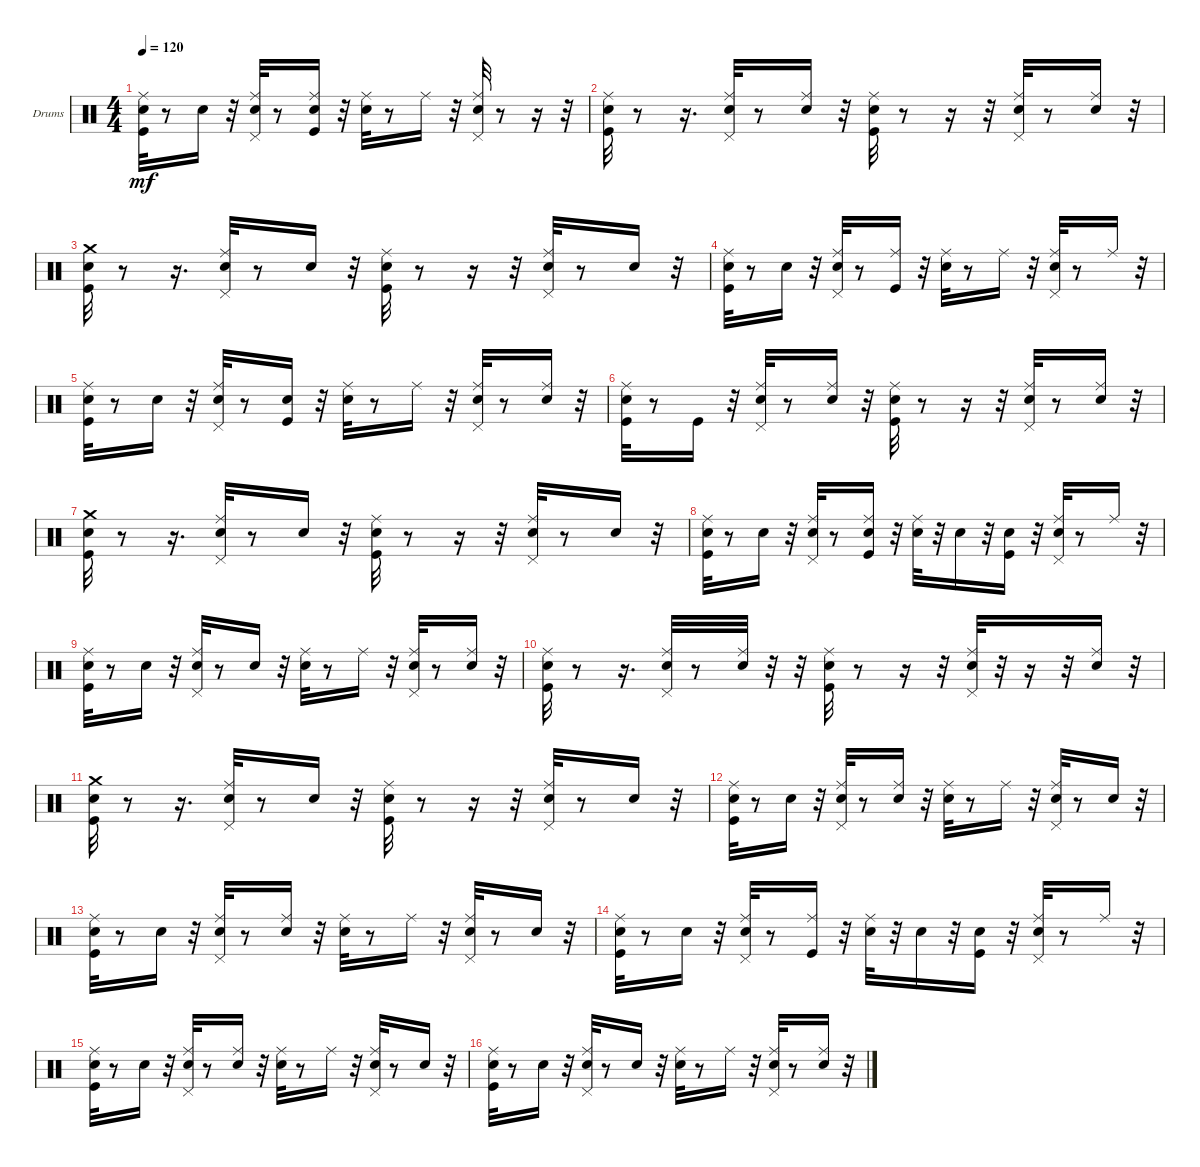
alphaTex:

\bracketExtendMode groupsimilarinstruments
\firstSystemTrackNameOrientation horizontal
\otherSystemsTrackNameOrientation horizontal
\track ("Drums   (BB)" "Drums") {instrument percussion}
\staff {score}
\articulation defaults
\ts (4 4)
\tempo 120
\clef neutral
\ks c
("Kick (hit)" "Snare (hit) 2" "Ride (middle)").32{dy mf} r.8 "Snare (hit) 2".16 r.32 ("Snare (hit) 2" "Ride (middle)" "Pedal Hi-Hat (hit)").32 r.8 ("Kick (hit)" "Snare (hit) 2" "Ride (middle)").16 r.32 ("Snare (hit) 2" "Ride (middle)").32 r.8 "Ride (middle)".16 r.32 ("Snare (hit) 2" "Ride (middle)" "Pedal Hi-Hat (hit)").32 r.8 r.16 r.32 |
("Kick (hit)" "Snare (hit) 2" "Ride (middle)").32 r.8 r.16{d} ("Snare (hit) 2" "Ride (middle)" "Pedal Hi-Hat (hit)").32 r.8 ("Snare (hit) 2" "Ride (middle)").16 r.32 ("Kick (hit)" "Snare (hit) 2" "Ride (middle)").32 r.8 r.16 r.32 ("Snare (hit) 2" "Ride (middle)" "Pedal Hi-Hat (hit)").32 r.8 ("Snare (hit) 2" "Ride (middle)").16 r.32 |
("Kick (hit)" "Snare (hit) 2" "Crash medium (hit)").32 r.8 r.16{d} ("Snare (hit) 2" "Ride (middle)" "Pedal Hi-Hat (hit)").32 r.8 "Snare (hit) 2".16 r.32 ("Kick (hit)" "Snare (hit) 2" "Ride (middle)").32 r.8 r.16 r.32 ("Snare (hit) 2" "Ride (middle)" "Pedal Hi-Hat (hit)").32 r.8 "Snare (hit) 2".16 r.32 |
("Kick (hit)" "Snare (hit) 2" "Ride (middle)").32 r.8 "Snare (hit) 2".16 r.32 ("Snare (hit) 2" "Ride (middle)" "Pedal Hi-Hat (hit)").32 r.8 ("Kick (hit)" "Ride (middle)").16 r.32 ("Snare (hit) 2" "Ride (middle)").32 r.8 "Ride (middle)".16 r.32 ("Snare (hit) 2" "Ride (middle)" "Pedal Hi-Hat (hit)").32 r.8 "Ride (middle)".16 r.32 |
("Kick (hit)" "Snare (hit) 2" "Ride (middle)").32 r.8 "Snare (hit) 2".16 r.32 ("Snare (hit) 2" "Ride (middle)" "Pedal Hi-Hat (hit)").32 r.8 ("Kick (hit)" "Snare (hit) 2").16 r.32 ("Snare (hit) 2" "Ride (middle)").32 r.8 "Ride (middle)".16 r.32 ("Snare (hit) 2" "Ride (middle)" "Pedal Hi-Hat (hit)").32 r.8 ("Snare (hit) 2" "Ride (middle)").16 r.32 |
("Kick (hit)" "Snare (hit) 2" "Ride (middle)").32 r.8 "Kick (hit)".16 r.32 ("Snare (hit) 2" "Ride (middle)" "Pedal Hi-Hat (hit)").32 r.8 ("Snare (hit) 2" "Ride (middle)").16 r.32 ("Kick (hit)" "Snare (hit) 2" "Ride (middle)").32 r.8 r.16 r.32 ("Snare (hit) 2" "Ride (middle)" "Pedal Hi-Hat (hit)").32 r.8 ("Snare (hit) 2" "Ride (middle)").16 r.32 |
("Kick (hit)" "Snare (hit) 2" "Crash medium (hit)").32 r.8 r.16{d} ("Snare (hit) 2" "Ride (middle)" "Pedal Hi-Hat (hit)").32 r.8 "Snare (hit) 2".16 r.32 ("Kick (hit)" "Snare (hit) 2" "Ride (middle)").32 r.8 r.16 r.32 ("Snare (hit) 2" "Ride (middle)" "Pedal Hi-Hat (hit)").32 r.8 "Snare (hit) 2".16 r.32 |
("Kick (hit)" "Snare (hit) 2" "Ride (middle)").32 r.8 "Snare (hit) 2".16 r.32 ("Snare (hit) 2" "Ride (middle)" "Pedal Hi-Hat (hit)").32 r.8 ("Kick (hit)" "Snare (hit) 2" "Ride (middle)").16 r.32 ("Snare (hit) 2" "Ride (middle)").32 r.32 "Snare (hit) 2".16 r.32 ("Kick (hit)" "Snare (hit) 2").16 r.32 ("Snare (hit) 2" "Ride (middle)" "Pedal Hi-Hat (hit)").32 r.8 "Ride (middle)".16 r.32 |
("Kick (hit)" "Snare (hit) 2" "Ride (middle)").32 r.8 "Snare (hit) 2".16 r.32 ("Snare (hit) 2" "Ride (middle)" "Pedal Hi-Hat (hit)").32 r.8 "Snare (hit) 2".16 r.32 ("Snare (hit) 2" "Ride (middle)").32 r.8 "Ride (middle)".16 r.32 ("Snare (hit) 2" "Ride (middle)" "Pedal Hi-Hat (hit)").32 r.8 ("Snare (hit) 2" "Ride (middle)").16 r.32 |
("Kick (hit)" "Snare (hit) 2" "Ride (middle)").32 r.8 r.16{d} ("Snare (hit) 2" "Ride (middle)" "Pedal Hi-Hat (hit)").32 r.8 ("Snare (hit) 2" "Ride (middle)").32 r.32 r.32 ("Kick (hit)" "Snare (hit) 2" "Ride (middle)").32 r.8 r.16 r.32 ("Snare (hit) 2" "Ride (middle)" "Pedal Hi-Hat (hit)").32 r.32 r.16 r.32 ("Snare (hit) 2" "Ride (middle)").16 r.32 |
("Kick (hit)" "Snare (hit) 2" "Crash medium (hit)").32 r.8 r.16{d} ("Snare (hit) 2" "Ride (middle)" "Pedal Hi-Hat (hit)").32 r.8 "Snare (hit) 2".16 r.32 ("Kick (hit)" "Snare (hit) 2" "Ride (middle)").32 r.8 r.16 r.32 ("Snare (hit) 2" "Ride (middle)" "Pedal Hi-Hat (hit)").32 r.8 "Snare (hit) 2".16 r.32 |
("Kick (hit)" "Snare (hit) 2" "Ride (middle)").32 r.8 "Snare (hit) 2".16 r.32 ("Snare (hit) 2" "Ride (middle)" "Pedal Hi-Hat (hit)").32 r.8 ("Snare (hit) 2" "Ride (middle)").16 r.32 ("Snare (hit) 2" "Ride (middle)").32 r.8 "Ride (middle)".16 r.32 ("Snare (hit) 2" "Ride (middle)" "Pedal Hi-Hat (hit)").32 r.8 "Snare (hit) 2".16 r.32 |
("Kick (hit)" "Snare (hit) 2" "Ride (middle)").32 r.8 "Snare (hit) 2".16 r.32 ("Snare (hit) 2" "Ride (middle)" "Pedal Hi-Hat (hit)").32 r.8 ("Snare (hit) 2" "Ride (middle)").16 r.32 ("Snare (hit) 2" "Ride (middle)").32 r.8 "Ride (middle)".16 r.32 ("Snare (hit) 2" "Ride (middle)" "Pedal Hi-Hat (hit)").32 r.8 "Snare (hit) 2".16 r.32 |
("Kick (hit)" "Snare (hit) 2" "Ride (middle)").32 r.8 "Snare (hit) 2".16 r.32 ("Snare (hit) 2" "Ride (middle)" "Pedal Hi-Hat (hit)").32 r.8 ("Kick (hit)" "Ride (middle)").16 r.32 ("Snare (hit) 2" "Ride (middle)").32 r.32 "Snare (hit) 2".16 r.32 ("Kick (hit)" "Snare (hit) 2").16 r.32 ("Snare (hit) 2" "Ride (middle)" "Pedal Hi-Hat (hit)").32 r.8 "Ride (middle)".16 r.32 |
("Kick (hit)" "Snare (hit) 2" "Ride (middle)").32 r.8 "Snare (hit) 2".16 r.32 ("Snare (hit) 2" "Ride (middle)" "Pedal Hi-Hat (hit)").32 r.8 ("Snare (hit) 2" "Ride (middle)").16 r.32 ("Snare (hit) 2" "Ride (middle)").32 r.8 "Ride (middle)".16 r.32 ("Snare (hit) 2" "Ride (middle)" "Pedal Hi-Hat (hit)").32 r.8 "Snare (hit) 2".16 r.32 |
("Kick (hit)" "Snare (hit) 2" "Ride (middle)").32 r.8 "Snare (hit) 2".16 r.32 ("Snare (hit) 2" "Ride (middle)" "Pedal Hi-Hat (hit)").32 r.8 "Snare (hit) 2".16 r.32 ("Snare (hit) 2" "Ride (middle)").32 r.8 "Ride (middle)".16 r.32 ("Snare (hit) 2" "Ride (middle)" "Pedal Hi-Hat (hit)").32 r.8 ("Snare (hit) 2" "Ride (middle)").16 r.32
